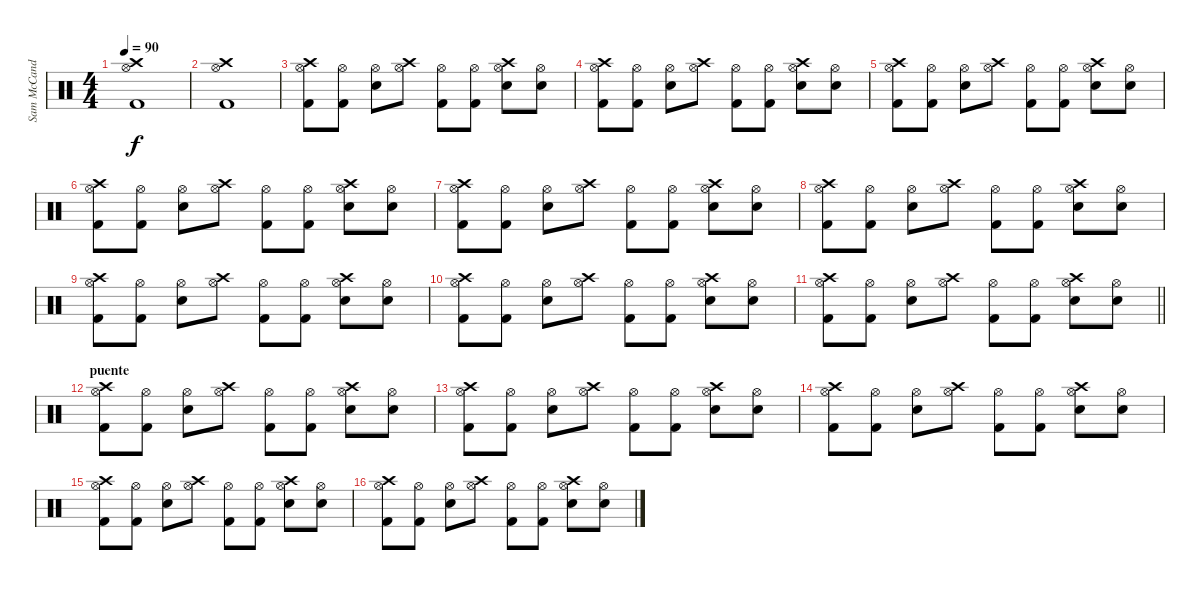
\track ("Sam McCandless" "Sam McCand") {instrument percussion}
\staff {score}
\articulation defaults
\ts (4 4)
\tempo 90
\clef neutral
\ks c
("Crash high (hit)" "Hi-Hat (open)" "Kick (hit) 2").1{dy f} |
("Crash high (hit)" "Hi-Hat (open)" "Kick (hit) 2").1 |
("Crash high (hit)" "Hi-Hat (open)" "Kick (hit) 2").8 ("Hi-Hat (open)" "Kick (hit) 2").8 ("Hi-Hat (open)" "Electric Snare (hit)").8 ("Crash high (hit)" "Hi-Hat (open)").8 ("Hi-Hat (open)" "Kick (hit) 2").8 ("Hi-Hat (open)" "Kick (hit) 2").8 ("Crash high (hit)" "Hi-Hat (open)" "Electric Snare (hit)").8 ("Hi-Hat (open)" "Electric Snare (hit)").8 |
("Crash high (hit)" "Hi-Hat (open)" "Kick (hit) 2").8 ("Hi-Hat (open)" "Kick (hit) 2").8 ("Hi-Hat (open)" "Electric Snare (hit)").8 ("Crash high (hit)" "Hi-Hat (open)").8 ("Hi-Hat (open)" "Kick (hit) 2").8 ("Hi-Hat (open)" "Kick (hit) 2").8 ("Crash high (hit)" "Hi-Hat (open)" "Electric Snare (hit)").8 ("Hi-Hat (open)" "Electric Snare (hit)").8 |
("Crash high (hit)" "Hi-Hat (open)" "Kick (hit) 2").8 ("Hi-Hat (open)" "Kick (hit) 2").8 ("Hi-Hat (open)" "Electric Snare (hit)").8 ("Crash high (hit)" "Hi-Hat (open)").8 ("Hi-Hat (open)" "Kick (hit) 2").8 ("Hi-Hat (open)" "Kick (hit) 2").8 ("Crash high (hit)" "Hi-Hat (open)" "Electric Snare (hit)").8 ("Hi-Hat (open)" "Electric Snare (hit)").8 |
("Crash high (hit)" "Hi-Hat (open)" "Kick (hit) 2").8 ("Hi-Hat (open)" "Kick (hit) 2").8 ("Hi-Hat (open)" "Electric Snare (hit)").8 ("Crash high (hit)" "Hi-Hat (open)").8 ("Hi-Hat (open)" "Kick (hit) 2").8 ("Hi-Hat (open)" "Kick (hit) 2").8 ("Crash high (hit)" "Hi-Hat (open)" "Electric Snare (hit)").8 ("Hi-Hat (open)" "Electric Snare (hit)").8 |
("Crash high (hit)" "Hi-Hat (open)" "Kick (hit) 2").8 ("Hi-Hat (open)" "Kick (hit) 2").8 ("Hi-Hat (open)" "Electric Snare (hit)").8 ("Crash high (hit)" "Hi-Hat (open)").8 ("Hi-Hat (open)" "Kick (hit) 2").8 ("Hi-Hat (open)" "Kick (hit) 2").8 ("Crash high (hit)" "Hi-Hat (open)" "Electric Snare (hit)").8 ("Hi-Hat (open)" "Electric Snare (hit)").8 |
("Crash high (hit)" "Hi-Hat (open)" "Kick (hit) 2").8 ("Hi-Hat (open)" "Kick (hit) 2").8 ("Hi-Hat (open)" "Electric Snare (hit)").8 ("Crash high (hit)" "Hi-Hat (open)").8 ("Hi-Hat (open)" "Kick (hit) 2").8 ("Hi-Hat (open)" "Kick (hit) 2").8 ("Crash high (hit)" "Hi-Hat (open)" "Electric Snare (hit)").8 ("Hi-Hat (open)" "Electric Snare (hit)").8 |
("Crash high (hit)" "Hi-Hat (open)" "Kick (hit) 2").8 ("Hi-Hat (open)" "Kick (hit) 2").8 ("Hi-Hat (open)" "Electric Snare (hit)").8 ("Crash high (hit)" "Hi-Hat (open)").8 ("Hi-Hat (open)" "Kick (hit) 2").8 ("Hi-Hat (open)" "Kick (hit) 2").8 ("Crash high (hit)" "Hi-Hat (open)" "Electric Snare (hit)").8 ("Hi-Hat (open)" "Electric Snare (hit)").8 |
("Crash high (hit)" "Hi-Hat (open)" "Kick (hit) 2").8 ("Hi-Hat (open)" "Kick (hit) 2").8 ("Hi-Hat (open)" "Electric Snare (hit)").8 ("Crash high (hit)" "Hi-Hat (open)").8 ("Hi-Hat (open)" "Kick (hit) 2").8 ("Hi-Hat (open)" "Kick (hit) 2").8 ("Crash high (hit)" "Hi-Hat (open)" "Electric Snare (hit)").8 ("Hi-Hat (open)" "Electric Snare (hit)").8 |
\barLineRight lightlight
("Crash high (hit)" "Hi-Hat (open)" "Kick (hit) 2").8 ("Hi-Hat (open)" "Kick (hit) 2").8 ("Hi-Hat (open)" "Electric Snare (hit)").8 ("Crash high (hit)" "Hi-Hat (open)").8 ("Hi-Hat (open)" "Kick (hit) 2").8 ("Hi-Hat (open)" "Kick (hit) 2").8 ("Crash high (hit)" "Hi-Hat (open)" "Electric Snare (hit)").8 ("Hi-Hat (open)" "Electric Snare (hit)").8 |
\section ("" "puente")
("Crash high (hit)" "Hi-Hat (open)" "Kick (hit) 2").8 ("Hi-Hat (open)" "Kick (hit) 2").8 ("Hi-Hat (open)" "Electric Snare (hit)").8 ("Crash high (hit)" "Hi-Hat (open)").8 ("Hi-Hat (open)" "Kick (hit) 2").8 ("Hi-Hat (open)" "Kick (hit) 2").8 ("Crash high (hit)" "Hi-Hat (open)" "Electric Snare (hit)").8 ("Hi-Hat (open)" "Electric Snare (hit)").8 |
("Crash high (hit)" "Hi-Hat (open)" "Kick (hit) 2").8 ("Hi-Hat (open)" "Kick (hit) 2").8 ("Hi-Hat (open)" "Electric Snare (hit)").8 ("Crash high (hit)" "Hi-Hat (open)").8 ("Hi-Hat (open)" "Kick (hit) 2").8 ("Hi-Hat (open)" "Kick (hit) 2").8 ("Crash high (hit)" "Hi-Hat (open)" "Electric Snare (hit)").8 ("Hi-Hat (open)" "Electric Snare (hit)").8 |
("Crash high (hit)" "Hi-Hat (open)" "Kick (hit) 2").8 ("Hi-Hat (open)" "Kick (hit) 2").8 ("Hi-Hat (open)" "Electric Snare (hit)").8 ("Crash high (hit)" "Hi-Hat (open)").8 ("Hi-Hat (open)" "Kick (hit) 2").8 ("Hi-Hat (open)" "Kick (hit) 2").8 ("Crash high (hit)" "Hi-Hat (open)" "Electric Snare (hit)").8 ("Hi-Hat (open)" "Electric Snare (hit)").8 |
("Crash high (hit)" "Hi-Hat (open)" "Kick (hit) 2").8 ("Hi-Hat (open)" "Kick (hit) 2").8 ("Hi-Hat (open)" "Electric Snare (hit)").8 ("Crash high (hit)" "Hi-Hat (open)").8 ("Hi-Hat (open)" "Kick (hit) 2").8 ("Hi-Hat (open)" "Kick (hit) 2").8 ("Crash high (hit)" "Hi-Hat (open)" "Electric Snare (hit)").8 ("Hi-Hat (open)" "Electric Snare (hit)").8 |
("Crash high (hit)" "Hi-Hat (open)" "Kick (hit) 2").8 ("Hi-Hat (open)" "Kick (hit) 2").8 ("Hi-Hat (open)" "Electric Snare (hit)").8 ("Crash high (hit)" "Hi-Hat (open)").8 ("Hi-Hat (open)" "Kick (hit) 2").8 ("Hi-Hat (open)" "Kick (hit) 2").8 ("Crash high (hit)" "Hi-Hat (open)" "Electric Snare (hit)").8 ("Hi-Hat (open)" "Electric Snare (hit)").8
